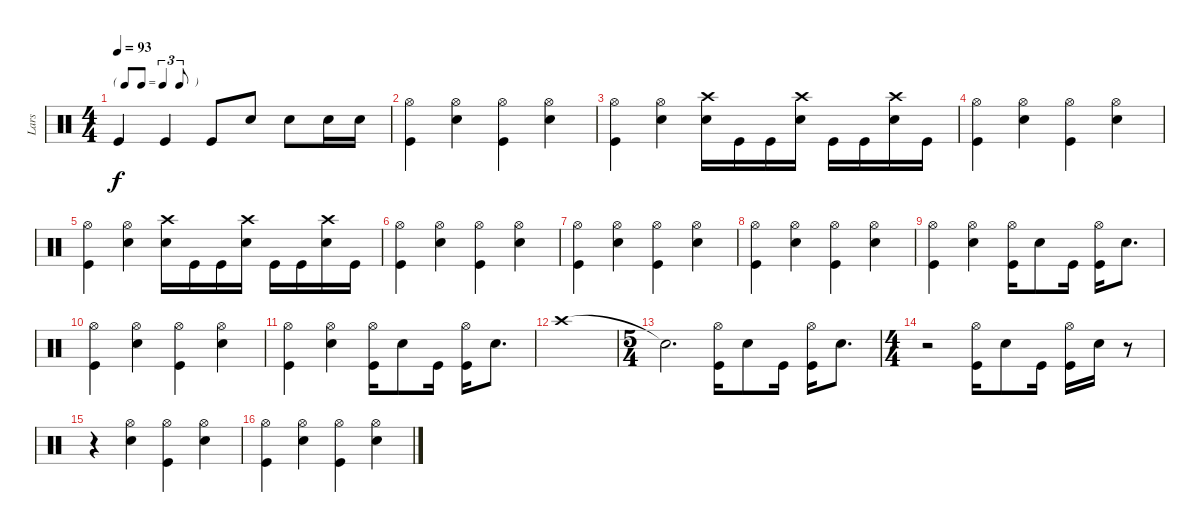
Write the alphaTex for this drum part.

\track ("Lars" "Lars") {instrument percussion}
\staff {score}
\articulation defaults
\ts (4 4)
\tf triplet8th
\tempo 93
\clef neutral
\ks c "Kick (hit)".4{dy f} "Kick (hit)".4 "Kick (hit)".8 "Snare (hit) 2".8 "Snare (hit) 2".8 "Snare (hit) 2".16 "Snare (hit) 2".16
|
("Hi-Hat (open)" "Kick (hit)").4 ("Hi-Hat (open)" "Snare (hit) 2").4 ("Hi-Hat (open)" "Kick (hit)").4 ("Hi-Hat (open)" "Snare (hit) 2").4 |
("Hi-Hat (open)" "Kick (hit)").4 ("Hi-Hat (open)" "Snare (hit) 2").4 ("Crash high (hit)" "Snare (hit) 2").16 "Kick (hit)".16 "Kick (hit)".16 ("Crash high (hit)" "Snare (hit) 2").16 "Kick (hit)".16 "Kick (hit)".16 ("Crash high (hit)" "Snare (hit) 2").16 "Kick (hit)".16 |
("Hi-Hat (open)" "Kick (hit)").4 ("Hi-Hat (open)" "Snare (hit) 2").4 ("Hi-Hat (open)" "Kick (hit)").4 ("Hi-Hat (open)" "Snare (hit) 2").4 |
("Hi-Hat (open)" "Kick (hit)").4 ("Hi-Hat (open)" "Snare (hit) 2").4 ("Crash high (hit)" "Snare (hit) 2").16 "Kick (hit)".16 "Kick (hit)".16 ("Crash high (hit)" "Snare (hit) 2").16 "Kick (hit)".16 "Kick (hit)".16 ("Crash high (hit)" "Snare (hit) 2").16 "Kick (hit)".16 |
("Hi-Hat (open)" "Kick (hit)").4 ("Hi-Hat (open)" "Snare (hit) 2").4 ("Hi-Hat (open)" "Kick (hit)").4 ("Hi-Hat (open)" "Snare (hit) 2").4 |
("Hi-Hat (open)" "Kick (hit)").4 ("Hi-Hat (open)" "Snare (hit) 2").4 ("Hi-Hat (open)" "Kick (hit)").4 ("Hi-Hat (open)" "Snare (hit) 2").4 |
("Hi-Hat (open)" "Kick (hit)").4 ("Hi-Hat (open)" "Snare (hit) 2").4 ("Hi-Hat (open)" "Kick (hit)").4 ("Hi-Hat (open)" "Snare (hit) 2").4 |
("Hi-Hat (open)" "Kick (hit)").4 ("Hi-Hat (open)" "Snare (hit) 2").4 ("Hi-Hat (open)" "Kick (hit)").16 "Snare (hit) 2".8 "Kick (hit)".16 ("Hi-Hat (open)" "Kick (hit)").16 "Snare (hit) 2".8{d} |
("Hi-Hat (open)" "Kick (hit)").4 ("Hi-Hat (open)" "Snare (hit) 2").4 ("Hi-Hat (open)" "Kick (hit)").4 ("Hi-Hat (open)" "Snare (hit) 2").4 |
("Hi-Hat (open)" "Kick (hit)").4 ("Hi-Hat (open)" "Snare (hit) 2").4 ("Hi-Hat (open)" "Kick (hit)").16 "Snare (hit) 2".8 "Kick (hit)".16 ("Hi-Hat (open)" "Kick (hit)").16 "Snare (hit) 2".8{d} |
"Crash high (hit)".1 |
\ts (5 4)
"Snare (hit)"{t}.2{d} ("Hi-Hat (open)" "Kick (hit)").16 "Snare (hit) 2".8 "Kick (hit)".16 ("Hi-Hat (open)" "Kick (hit)").16 "Snare (hit) 2".8{d} |
\ts (4 4)
r.2 ("Hi-Hat (open)" "Kick (hit)").16 "Snare (hit) 2".8 "Kick (hit)".16 ("Hi-Hat (open)" "Kick (hit)").16 "Snare (hit) 2".16 r.8 |
r.4 ("Hi-Hat (open)" "Snare (hit) 2").4 ("Hi-Hat (open)" "Kick (hit)").4 ("Hi-Hat (open)" "Snare (hit) 2").4 |
("Hi-Hat (open)" "Kick (hit)").4 ("Hi-Hat (open)" "Snare (hit) 2").4 ("Hi-Hat (open)" "Kick (hit)").4 ("Hi-Hat (open)" "Snare (hit) 2").4
